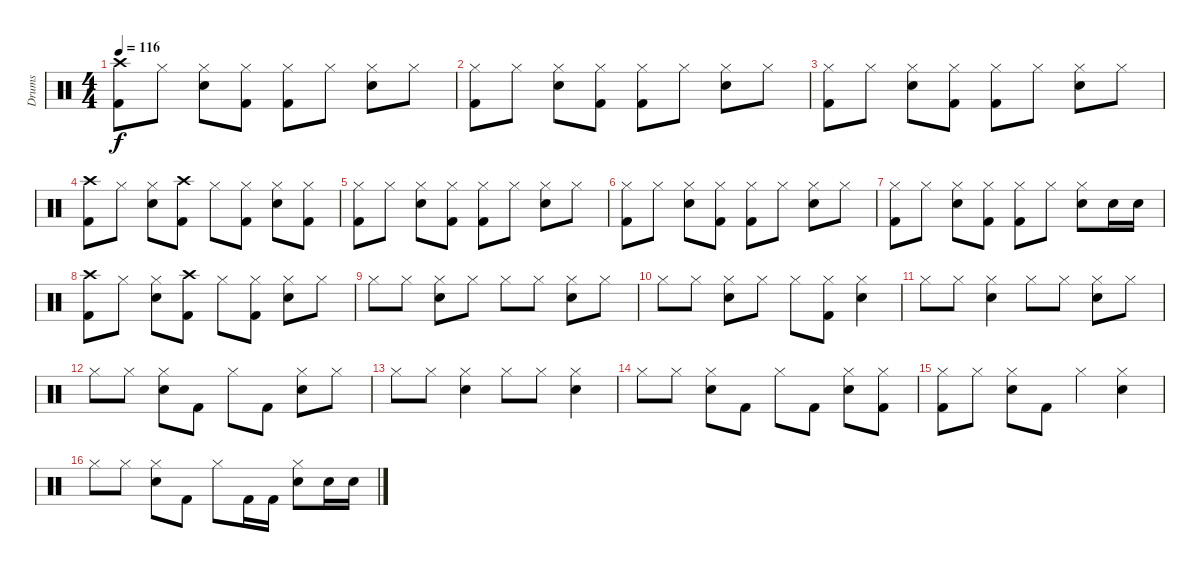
\track ("Drums" "Drums") {instrument percussion}
\staff {score}
\articulation defaults
\ts (4 4)
\tempo 116
\clef neutral
\ks c
("Crash high (hit)" "Kick (hit) 2").8{dy f} "Hi-Hat (closed)".8 ("Hi-Hat (closed)" "Electric Snare (hit)").8 ("Hi-Hat (closed)" "Kick (hit) 2").8 ("Hi-Hat (closed)" "Kick (hit) 2").8 "Hi-Hat (closed)".8 ("Hi-Hat (closed)" "Electric Snare (hit)").8 "Hi-Hat (closed)".8 |
("Hi-Hat (closed)" "Kick (hit) 2").8 "Hi-Hat (closed)".8 ("Hi-Hat (closed)" "Electric Snare (hit)").8 ("Hi-Hat (closed)" "Kick (hit) 2").8 ("Hi-Hat (closed)" "Kick (hit) 2").8 "Hi-Hat (closed)".8 ("Hi-Hat (closed)" "Electric Snare (hit)").8 "Hi-Hat (closed)".8 |
("Hi-Hat (closed)" "Kick (hit) 2").8 "Hi-Hat (closed)".8 ("Hi-Hat (closed)" "Electric Snare (hit)").8 ("Hi-Hat (closed)" "Kick (hit) 2").8 ("Hi-Hat (closed)" "Kick (hit) 2").8 "Hi-Hat (closed)".8 ("Hi-Hat (closed)" "Electric Snare (hit)").8 "Hi-Hat (closed)".8 |
("Crash high (hit)" "Kick (hit) 2").8 "Hi-Hat (closed)".8 ("Hi-Hat (closed)" "Electric Snare (hit)").8 ("Crash high (hit)" "Kick (hit) 2").8 "Hi-Hat (closed)".8 ("Hi-Hat (closed)" "Kick (hit) 2").8 ("Hi-Hat (closed)" "Electric Snare (hit)").8 ("Hi-Hat (closed)" "Kick (hit) 2").8 |
("Hi-Hat (closed)" "Kick (hit) 2").8 "Hi-Hat (closed)".8 ("Hi-Hat (closed)" "Electric Snare (hit)").8 ("Hi-Hat (closed)" "Kick (hit) 2").8 ("Hi-Hat (closed)" "Kick (hit) 2").8 "Hi-Hat (closed)".8 ("Hi-Hat (closed)" "Electric Snare (hit)").8 "Hi-Hat (closed)".8 |
("Hi-Hat (closed)" "Kick (hit) 2").8 "Hi-Hat (closed)".8 ("Hi-Hat (closed)" "Electric Snare (hit)").8 ("Hi-Hat (closed)" "Kick (hit) 2").8 ("Hi-Hat (closed)" "Kick (hit) 2").8 "Hi-Hat (closed)".8 ("Hi-Hat (closed)" "Electric Snare (hit)").8 "Hi-Hat (closed)".8 |
("Hi-Hat (closed)" "Kick (hit) 2").8 "Hi-Hat (closed)".8 ("Hi-Hat (closed)" "Electric Snare (hit)").8 ("Hi-Hat (closed)" "Kick (hit) 2").8 ("Hi-Hat (closed)" "Kick (hit) 2").8 "Hi-Hat (closed)".8 ("Hi-Hat (closed)" "Electric Snare (hit)").8 "Electric Snare (hit)".16 "Electric Snare (hit)".16 |
("Crash high (hit)" "Kick (hit) 2").8 "Hi-Hat (closed)".8 ("Hi-Hat (closed)" "Electric Snare (hit)").8 ("Crash high (hit)" "Kick (hit) 2").8 "Hi-Hat (closed)".8 ("Hi-Hat (closed)" "Kick (hit) 2").8 ("Hi-Hat (closed)" "Electric Snare (hit)").8 "Hi-Hat (closed)".8 |
"Hi-Hat (closed)".8 "Hi-Hat (closed)".8 ("Hi-Hat (closed)" "Electric Snare (hit)").8 "Hi-Hat (closed)".8 "Hi-Hat (closed)".8 "Hi-Hat (closed)".8 ("Hi-Hat (closed)" "Electric Snare (hit)").8 "Hi-Hat (closed)".8 |
"Hi-Hat (closed)".8 "Hi-Hat (closed)".8 ("Hi-Hat (closed)" "Electric Snare (hit)").8 "Hi-Hat (closed)".8 "Hi-Hat (closed)".8 ("Hi-Hat (closed)" "Kick (hit) 2").8 ("Hi-Hat (closed)" "Electric Snare (hit)").4 |
"Hi-Hat (closed)".8 "Hi-Hat (closed)".8 ("Hi-Hat (closed)" "Electric Snare (hit)").4 "Hi-Hat (closed)".8 "Hi-Hat (closed)".8 ("Hi-Hat (closed)" "Electric Snare (hit)").8 "Hi-Hat (closed)".8 |
"Hi-Hat (closed)".8 "Hi-Hat (closed)".8 ("Hi-Hat (closed)" "Electric Snare (hit)").8 "Kick (hit) 2".8 "Hi-Hat (closed)".8 "Kick (hit) 2".8 ("Hi-Hat (closed)" "Electric Snare (hit)").8 "Hi-Hat (closed)".8 |
"Hi-Hat (closed)".8 "Hi-Hat (closed)".8 ("Hi-Hat (closed)" "Electric Snare (hit)").4 "Hi-Hat (closed)".8 "Hi-Hat (closed)".8 ("Hi-Hat (closed)" "Electric Snare (hit)").4 |
"Hi-Hat (closed)".8 "Hi-Hat (closed)".8 ("Hi-Hat (closed)" "Electric Snare (hit)").8 "Kick (hit) 2".8 "Hi-Hat (closed)".8 "Kick (hit) 2".8 ("Hi-Hat (closed)" "Electric Snare (hit)").8 ("Hi-Hat (closed)" "Kick (hit) 2").8 |
("Hi-Hat (closed)" "Kick (hit) 2").8 "Hi-Hat (closed)".8 ("Hi-Hat (closed)" "Electric Snare (hit)").8 "Kick (hit) 2".8 "Hi-Hat (closed)".4 ("Hi-Hat (closed)" "Electric Snare (hit)").4 |
"Hi-Hat (closed)".8 "Hi-Hat (closed)".8 ("Hi-Hat (closed)" "Electric Snare (hit)").8 "Kick (hit) 2".8 "Hi-Hat (closed)".8 "Kick (hit) 2".16 "Kick (hit) 2".16 ("Hi-Hat (closed)" "Electric Snare (hit)").8 "Electric Snare (hit)".16 "Electric Snare (hit)".16
